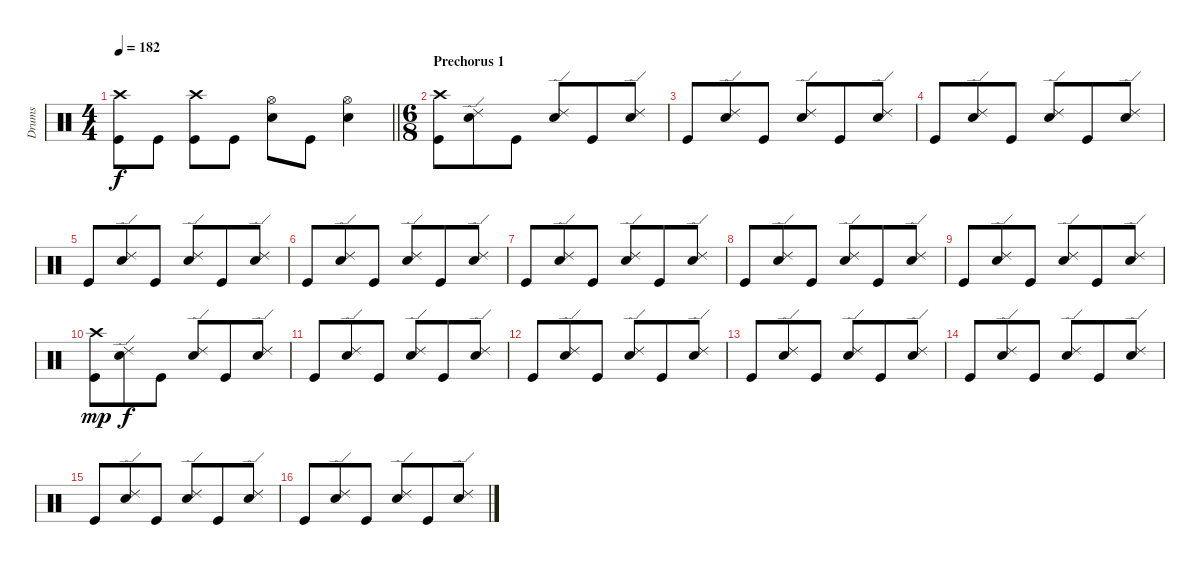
\track ("Drums" "Drums") {instrument percussion}
\staff {score}
\articulation defaults
\ts (4 4)
\tempo 182
\clef neutral
\barLineRight lightlight
\ks c
("Crash high (hit)" "Kick (hit)").8{dy f} "Kick (hit)".8 ("Crash high (hit)" "Kick (hit)").8 "Kick (hit)".8 ("Hi-Hat (open)" "Electric Snare (hit)").8 "Kick (hit)".8 ("Hi-Hat (open)" "Electric Snare (hit)").4 |
\ts (6 8)
\section ("" "Prechorus 1")
("Crash high (hit)" "Kick (hit)").8 ("Ride (edge) 2" "Electric Snare (hit)").8 "Kick (hit)".8 ("Ride (edge) 2" "Electric Snare (hit)").8 "Kick (hit)".8 ("Ride (edge) 2" "Electric Snare (hit)").8 |
"Kick (hit)".8 ("Ride (edge) 2" "Electric Snare (hit)").8 "Kick (hit)".8 ("Ride (edge) 2" "Electric Snare (hit)").8 "Kick (hit)".8 ("Ride (edge) 2" "Electric Snare (hit)").8 |
"Kick (hit)".8 ("Ride (edge) 2" "Electric Snare (hit)").8 "Kick (hit)".8 ("Ride (edge) 2" "Electric Snare (hit)").8 "Kick (hit)".8 ("Ride (edge) 2" "Electric Snare (hit)").8 |
"Kick (hit)".8 ("Ride (edge) 2" "Electric Snare (hit)").8 "Kick (hit)".8 ("Ride (edge) 2" "Electric Snare (hit)").8 "Kick (hit)".8 ("Ride (edge) 2" "Electric Snare (hit)").8 |
"Kick (hit)".8 ("Ride (edge) 2" "Electric Snare (hit)").8 "Kick (hit)".8 ("Ride (edge) 2" "Electric Snare (hit)").8 "Kick (hit)".8 ("Ride (edge) 2" "Electric Snare (hit)").8 |
"Kick (hit)".8 ("Ride (edge) 2" "Electric Snare (hit)").8 "Kick (hit)".8 ("Ride (edge) 2" "Electric Snare (hit)").8 "Kick (hit)".8 ("Ride (edge) 2" "Electric Snare (hit)").8 |
"Kick (hit)".8 ("Ride (edge) 2" "Electric Snare (hit)").8 "Kick (hit)".8 ("Ride (edge) 2" "Electric Snare (hit)").8 "Kick (hit)".8 ("Ride (edge) 2" "Electric Snare (hit)").8 |
"Kick (hit)".8 ("Ride (edge) 2" "Electric Snare (hit)").8 "Kick (hit)".8 ("Ride (edge) 2" "Electric Snare (hit)").8 "Kick (hit)".8 ("Ride (edge) 2" "Electric Snare (hit)").8 |
("Crash high (hit)" "Kick (hit)").8{dy mp} ("Ride (edge) 2" "Electric Snare (hit)").8{dy f} "Kick (hit)".8 ("Ride (edge) 2" "Electric Snare (hit)").8 "Kick (hit)".8 ("Ride (edge) 2" "Electric Snare (hit)").8 |
"Kick (hit)".8 ("Ride (edge) 2" "Electric Snare (hit)").8 "Kick (hit)".8 ("Ride (edge) 2" "Electric Snare (hit)").8 "Kick (hit)".8 ("Ride (edge) 2" "Electric Snare (hit)").8 |
"Kick (hit)".8 ("Ride (edge) 2" "Electric Snare (hit)").8 "Kick (hit)".8 ("Ride (edge) 2" "Electric Snare (hit)").8 "Kick (hit)".8 ("Ride (edge) 2" "Electric Snare (hit)").8 |
"Kick (hit)".8 ("Ride (edge) 2" "Electric Snare (hit)").8 "Kick (hit)".8 ("Ride (edge) 2" "Electric Snare (hit)").8 "Kick (hit)".8 ("Ride (edge) 2" "Electric Snare (hit)").8 |
"Kick (hit)".8 ("Ride (edge) 2" "Electric Snare (hit)").8 "Kick (hit)".8 ("Ride (edge) 2" "Electric Snare (hit)").8 "Kick (hit)".8 ("Ride (edge) 2" "Electric Snare (hit)").8 |
"Kick (hit)".8 ("Ride (edge) 2" "Electric Snare (hit)").8 "Kick (hit)".8 ("Ride (edge) 2" "Electric Snare (hit)").8 "Kick (hit)".8 ("Ride (edge) 2" "Electric Snare (hit)").8 |
"Kick (hit)".8 ("Ride (edge) 2" "Electric Snare (hit)").8 "Kick (hit)".8 ("Ride (edge) 2" "Electric Snare (hit)").8 "Kick (hit)".8 ("Ride (edge) 2" "Electric Snare (hit)").8
